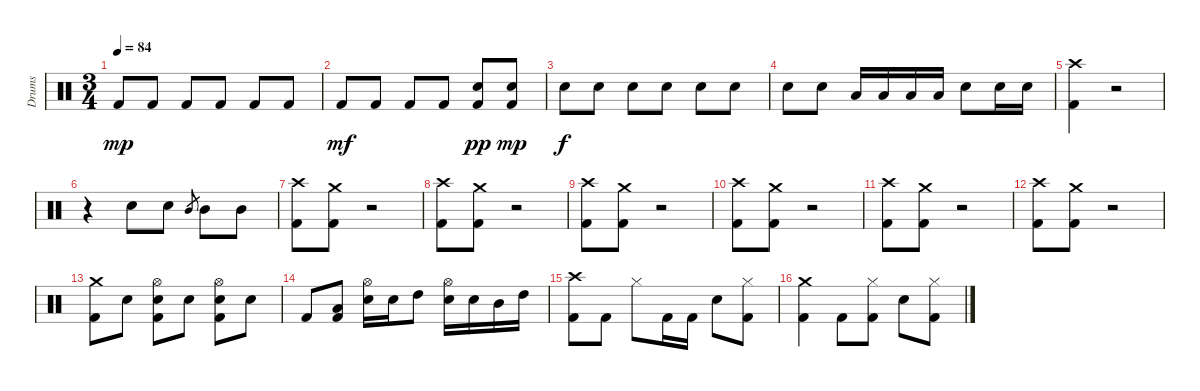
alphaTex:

\track ("Drums" "Drums") {instrument percussion}
\staff {score}
\articulation defaults
\ts (3 4)
\tempo 84
\clef neutral
\ks c "Kick (hit) 2".8{dy mp} "Kick (hit) 2".8 "Kick (hit) 2".8 "Kick (hit) 2".8 "Kick (hit) 2".8 "Kick (hit) 2".8
|
"Kick (hit) 2".8{dy mf} "Kick (hit) 2".8 "Kick (hit) 2".8 "Kick (hit) 2".8 ("Kick (hit) 2" "Snare (hit) 2").8{dy pp} ("Kick (hit) 2" "Snare (hit) 2").8{dy mp} |
"Snare (hit) 2".8{dy f} "Snare (hit) 2".8 "Snare (hit) 2".8 "Snare (hit) 2".8 "Snare (hit) 2".8 "Snare (hit) 2".8 |
"Snare (hit) 2".8 "Snare (hit) 2".8 "Low Tom (hit)".16 "Low Tom (hit)".16 "Low Tom (hit)".16 "Low Tom (hit)".16 "Snare (hit) 2".8 "Snare (hit) 2".16 "Snare (hit) 2".16 |
("Kick (hit) 2" "Crash high (hit)").4 r.2 |
r.4 "Snare (hit) 2".8 "Snare (hit) 2".8 "Mid Tom (hit)".8{gr} "Mid Tom (hit)".8 "Mid Tom (hit)".8 |
("Kick (hit) 2" "Crash high (hit)").8 ("Kick (hit) 2" "Crash medium (hit)").8 r.2 |
("Kick (hit) 2" "Crash high (hit)").8 ("Kick (hit) 2" "Crash medium (hit)").8 r.2 |
("Kick (hit) 2" "Crash high (hit)").8 ("Kick (hit) 2" "Crash medium (hit)").8 r.2 |
("Kick (hit) 2" "Crash high (hit)").8 ("Kick (hit) 2" "Crash medium (hit)").8 r.2 |
("Kick (hit) 2" "Crash high (hit)").8 ("Kick (hit) 2" "Crash medium (hit)").8 r.2 |
("Kick (hit) 2" "Crash high (hit)").8 ("Kick (hit) 2" "Crash medium (hit)").8 r.2 |
("Kick (hit) 2" "Crash medium (hit)").8 "Snare (hit) 2".8 ("Kick (hit) 2" "Snare (hit) 2" "Hi-Hat (open)").8 "Snare (hit) 2".8 ("Kick (hit) 2" "Snare (hit) 2" "Hi-Hat (open)").8 "Snare (hit) 2".8 |
"Kick (hit) 2".8 ("Kick (hit) 2" "Low Tom (hit)").8 ("Snare (hit) 2" "Hi-Hat (open)").16 "Snare (hit) 2".16 "High Tom (hit)".8 ("Snare (hit) 2" "Hi-Hat (open)").16 "Snare (hit) 2".16 "Mid Tom (hit)".16 "High Tom (hit)".16 |
("Kick (hit) 2" "Crash high (hit)").8 "Kick (hit) 2".8 "Hi-Hat (closed)".8 "Kick (hit) 2".16 "Kick (hit) 2".16 "Snare (hit) 2".8 ("Kick (hit) 2" "Hi-Hat (closed)").8 |
("Kick (hit) 2" "Crash medium (hit)").4 "Kick (hit) 2".8 ("Kick (hit) 2" "Hi-Hat (closed)").8 "Snare (hit) 2".8 ("Kick (hit) 2" "Hi-Hat (closed)").8
